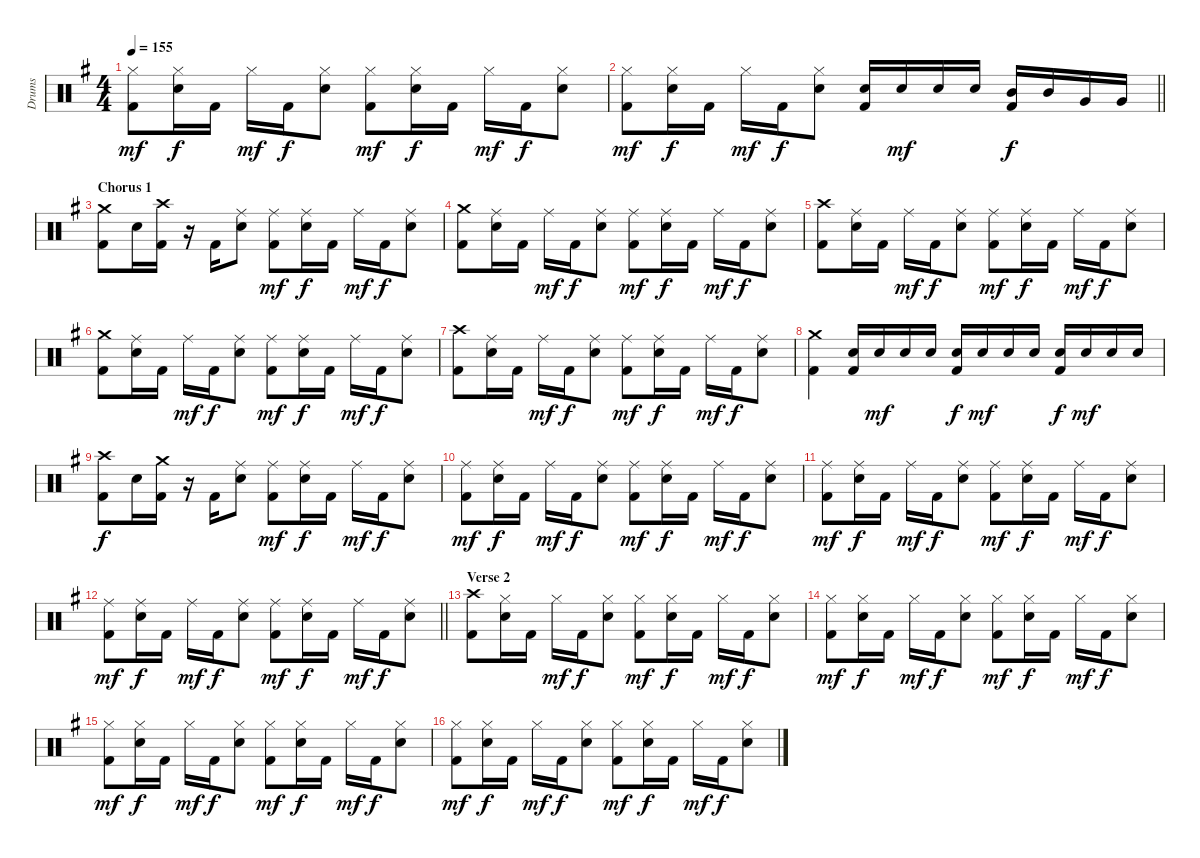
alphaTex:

\track ("Drums" "Drums") {instrument percussion}
\staff {score}
\articulation defaults
\ts (4 4)
\tempo 155
\clef neutral
\ks g
("Hi-Hat (closed)" "Kick (hit) 2").8{dy mf} ("Hi-Hat (closed)" "Electric Snare (hit)").16{dy f} "Kick (hit) 2".16 "Hi-Hat (closed)".16{dy mf} "Kick (hit) 2".16{dy f} ("Hi-Hat (closed)" "Electric Snare (hit)").8 ("Hi-Hat (closed)" "Kick (hit) 2").8{dy mf} ("Hi-Hat (closed)" "Electric Snare (hit)").16{dy f} "Kick (hit) 2".16 "Hi-Hat (closed)".16{dy mf} "Kick (hit) 2".16{dy f} ("Hi-Hat (closed)" "Electric Snare (hit)").8 |
\barLineRight lightlight
("Hi-Hat (closed)" "Kick (hit) 2").8{dy mf} ("Hi-Hat (closed)" "Electric Snare (hit)").16{dy f} "Kick (hit) 2".16 "Hi-Hat (closed)".16{dy mf} "Kick (hit) 2".16{dy f} ("Hi-Hat (closed)" "Electric Snare (hit)").8 ("Electric Snare (hit)" "Kick (hit) 2").16 "Electric Snare (hit)".16{dy mf} "Electric Snare (hit)".16 "Electric Snare (hit)".16 ("Mid Tom (hit)" "Kick (hit) 2").16{dy f} "Mid Tom (hit)".16 "Very Low Tom (hit)".16 "Very Low Tom (hit)".16 |
\section ("" "Chorus 1")
("Crash medium (hit)" "Kick (hit) 2").8 "Electric Snare (hit)".16 ("Crash high (hit)" "Kick (hit) 2").16 r.16 "Kick (hit) 2".16 ("Ride (middle)" "Electric Snare (hit)").8 ("Ride (middle)" "Kick (hit) 2").8{dy mf} ("Ride (middle)" "Electric Snare (hit)").16{dy f} "Kick (hit) 2".16 "Ride (middle)".16{dy mf} "Kick (hit) 2".16{dy f} ("Ride (middle)" "Electric Snare (hit)").8 |
("Crash medium (hit)" "Kick (hit) 2").8 ("Ride (middle)" "Electric Snare (hit)").16 "Kick (hit) 2".16 "Ride (middle)".16{dy mf} "Kick (hit) 2".16{dy f} ("Ride (middle)" "Electric Snare (hit)").8 ("Ride (middle)" "Kick (hit) 2").8{dy mf} ("Ride (middle)" "Electric Snare (hit)").16{dy f} "Kick (hit) 2".16 "Ride (middle)".16{dy mf} "Kick (hit) 2".16{dy f} ("Ride (middle)" "Electric Snare (hit)").8 |
("Crash high (hit)" "Kick (hit) 2").8 ("Ride (middle)" "Electric Snare (hit)").16 "Kick (hit) 2".16 "Ride (middle)".16{dy mf} "Kick (hit) 2".16{dy f} ("Ride (middle)" "Electric Snare (hit)").8 ("Ride (middle)" "Kick (hit) 2").8{dy mf} ("Ride (middle)" "Electric Snare (hit)").16{dy f} "Kick (hit) 2".16 "Ride (middle)".16{dy mf} "Kick (hit) 2".16{dy f} ("Ride (middle)" "Electric Snare (hit)").8 |
("Crash medium (hit)" "Kick (hit) 2").8 ("Ride (middle)" "Electric Snare (hit)").16 "Kick (hit) 2".16 "Ride (middle)".16{dy mf} "Kick (hit) 2".16{dy f} ("Ride (middle)" "Electric Snare (hit)").8 ("Ride (middle)" "Kick (hit) 2").8{dy mf} ("Ride (middle)" "Electric Snare (hit)").16{dy f} "Kick (hit) 2".16 "Ride (middle)".16{dy mf} "Kick (hit) 2".16{dy f} ("Ride (middle)" "Electric Snare (hit)").8 |
("Crash high (hit)" "Kick (hit) 2").8 ("Ride (middle)" "Electric Snare (hit)").16 "Kick (hit) 2".16 "Ride (middle)".16{dy mf} "Kick (hit) 2".16{dy f} ("Ride (middle)" "Electric Snare (hit)").8 ("Ride (middle)" "Kick (hit) 2").8{dy mf} ("Ride (middle)" "Electric Snare (hit)").16{dy f} "Kick (hit) 2".16 "Ride (middle)".16{dy mf} "Kick (hit) 2".16{dy f} ("Ride (middle)" "Electric Snare (hit)").8 |
("Crash medium (hit)" "Kick (hit) 2").4 ("Electric Snare (hit)" "Kick (hit) 2").16 "Electric Snare (hit)".16{dy mf} "Electric Snare (hit)".16 "Electric Snare (hit)".16 ("Electric Snare (hit)" "Kick (hit) 2").16{dy f} "Electric Snare (hit)".16{dy mf} "Electric Snare (hit)".16 "Electric Snare (hit)".16 ("Electric Snare (hit)" "Kick (hit) 2").16{dy f} "Electric Snare (hit)".16{dy mf} "Electric Snare (hit)".16 "Electric Snare (hit)".16 |
("Crash high (hit)" "Kick (hit) 2").8{dy f} "Electric Snare (hit)".16 ("Crash medium (hit)" "Kick (hit) 2").16 r.16 "Kick (hit) 2".16 ("Ride (middle)" "Electric Snare (hit)").8 ("Ride (middle)" "Kick (hit) 2").8{dy mf} ("Ride (middle)" "Electric Snare (hit)").16{dy f} "Kick (hit) 2".16 "Ride (middle)".16{dy mf} "Kick (hit) 2".16{dy f} ("Ride (middle)" "Electric Snare (hit)").8 |
("Ride (middle)" "Kick (hit) 2").8{dy mf} ("Ride (middle)" "Electric Snare (hit)").16{dy f} "Kick (hit) 2".16 "Ride (middle)".16{dy mf} "Kick (hit) 2".16{dy f} ("Ride (middle)" "Electric Snare (hit)").8 ("Ride (middle)" "Kick (hit) 2").8{dy mf} ("Ride (middle)" "Electric Snare (hit)").16{dy f} "Kick (hit) 2".16 "Ride (middle)".16{dy mf} "Kick (hit) 2".16{dy f} ("Ride (middle)" "Electric Snare (hit)").8 |
("Ride (middle)" "Kick (hit) 2").8{dy mf} ("Ride (middle)" "Electric Snare (hit)").16{dy f} "Kick (hit) 2".16 "Ride (middle)".16{dy mf} "Kick (hit) 2".16{dy f} ("Ride (middle)" "Electric Snare (hit)").8 ("Ride (middle)" "Kick (hit) 2").8{dy mf} ("Ride (middle)" "Electric Snare (hit)").16{dy f} "Kick (hit) 2".16 "Ride (middle)".16{dy mf} "Kick (hit) 2".16{dy f} ("Ride (middle)" "Electric Snare (hit)").8 |
\barLineRight lightlight
("Ride (middle)" "Kick (hit) 2").8{dy mf} ("Ride (middle)" "Electric Snare (hit)").16{dy f} "Kick (hit) 2".16 "Ride (middle)".16{dy mf} "Kick (hit) 2".16{dy f} ("Ride (middle)" "Electric Snare (hit)").8 ("Ride (middle)" "Kick (hit) 2").8{dy mf} ("Ride (middle)" "Electric Snare (hit)").16{dy f} "Kick (hit) 2".16 "Ride (middle)".16{dy mf} "Kick (hit) 2".16{dy f} ("Ride (middle)" "Electric Snare (hit)").8 |
\section ("" "Verse 2")
("Crash high (hit)" "Kick (hit) 2").8 ("Hi-Hat (closed)" "Electric Snare (hit)").16 "Kick (hit) 2".16 "Hi-Hat (closed)".16{dy mf} "Kick (hit) 2".16{dy f} ("Hi-Hat (closed)" "Electric Snare (hit)").8 ("Hi-Hat (closed)" "Kick (hit) 2").8{dy mf} ("Hi-Hat (closed)" "Electric Snare (hit)").16{dy f} "Kick (hit) 2".16 "Hi-Hat (closed)".16{dy mf} "Kick (hit) 2".16{dy f} ("Hi-Hat (closed)" "Electric Snare (hit)").8 |
("Hi-Hat (closed)" "Kick (hit) 2").8{dy mf} ("Hi-Hat (closed)" "Electric Snare (hit)").16{dy f} "Kick (hit) 2".16 "Hi-Hat (closed)".16{dy mf} "Kick (hit) 2".16{dy f} ("Hi-Hat (closed)" "Electric Snare (hit)").8 ("Hi-Hat (closed)" "Kick (hit) 2").8{dy mf} ("Hi-Hat (closed)" "Electric Snare (hit)").16{dy f} "Kick (hit) 2".16 "Hi-Hat (closed)".16{dy mf} "Kick (hit) 2".16{dy f} ("Hi-Hat (closed)" "Electric Snare (hit)").8 |
("Hi-Hat (closed)" "Kick (hit) 2").8{dy mf} ("Hi-Hat (closed)" "Electric Snare (hit)").16{dy f} "Kick (hit) 2".16 "Hi-Hat (closed)".16{dy mf} "Kick (hit) 2".16{dy f} ("Hi-Hat (closed)" "Electric Snare (hit)").8 ("Hi-Hat (closed)" "Kick (hit) 2").8{dy mf} ("Hi-Hat (closed)" "Electric Snare (hit)").16{dy f} "Kick (hit) 2".16 "Hi-Hat (closed)".16{dy mf} "Kick (hit) 2".16{dy f} ("Hi-Hat (closed)" "Electric Snare (hit)").8 |
("Hi-Hat (closed)" "Kick (hit) 2").8{dy mf} ("Hi-Hat (closed)" "Electric Snare (hit)").16{dy f} "Kick (hit) 2".16 "Hi-Hat (closed)".16{dy mf} "Kick (hit) 2".16{dy f} ("Hi-Hat (closed)" "Electric Snare (hit)").8 ("Hi-Hat (closed)" "Kick (hit) 2").8{dy mf} ("Hi-Hat (closed)" "Electric Snare (hit)").16{dy f} "Kick (hit) 2".16 "Hi-Hat (closed)".16{dy mf} "Kick (hit) 2".16{dy f} ("Hi-Hat (closed)" "Electric Snare (hit)").8
